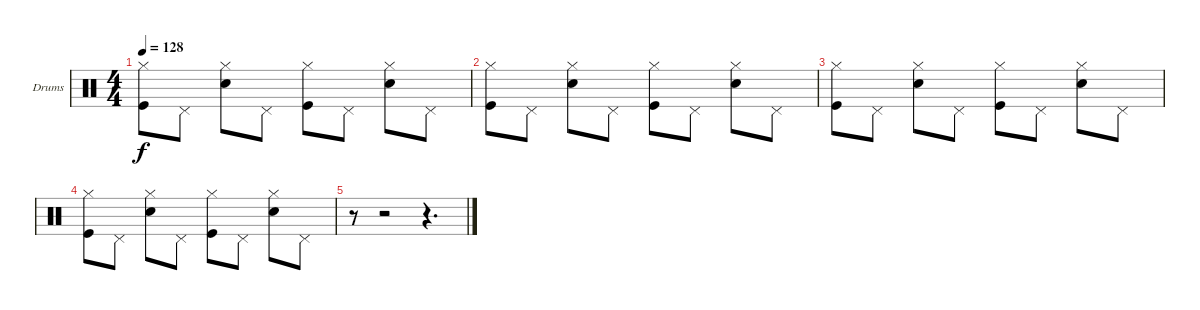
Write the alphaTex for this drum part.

\bracketExtendMode groupsimilarinstruments
\firstSystemTrackNameOrientation horizontal
\otherSystemsTrackNameOrientation horizontal
\track ("Drumkit" "Drums") {instrument percussion}
\staff {score}
\articulation defaults
\ts (4 4)
\tempo 128
\clef neutral
\ks c
("Hi-Hat (closed)" "Kick (hit)").8{dy f} "Pedal Hi-Hat (hit)".8 ("Hi-Hat (closed)" "Snare (hit) 2").8 "Pedal Hi-Hat (hit)".8 ("Hi-Hat (closed)" "Kick (hit)").8 "Pedal Hi-Hat (hit)".8 ("Hi-Hat (closed)" "Snare (hit) 2").8 "Pedal Hi-Hat (hit)".8 |
("Hi-Hat (closed)" "Kick (hit)").8 "Pedal Hi-Hat (hit)".8 ("Hi-Hat (closed)" "Snare (hit) 2").8 "Pedal Hi-Hat (hit)".8 ("Hi-Hat (closed)" "Kick (hit)").8 "Pedal Hi-Hat (hit)".8 ("Hi-Hat (closed)" "Snare (hit) 2").8 "Pedal Hi-Hat (hit)".8 |
("Hi-Hat (closed)" "Kick (hit)").8 "Pedal Hi-Hat (hit)".8 ("Hi-Hat (closed)" "Snare (hit) 2").8 "Pedal Hi-Hat (hit)".8 ("Hi-Hat (closed)" "Kick (hit)").8 "Pedal Hi-Hat (hit)".8 ("Hi-Hat (closed)" "Snare (hit) 2").8 "Pedal Hi-Hat (hit)".8 |
("Hi-Hat (closed)" "Kick (hit)").8 "Pedal Hi-Hat (hit)".8 ("Hi-Hat (closed)" "Snare (hit) 2").8 "Pedal Hi-Hat (hit)".8 ("Hi-Hat (closed)" "Kick (hit)").8 "Pedal Hi-Hat (hit)".8 ("Hi-Hat (closed)" "Snare (hit) 2").8 "Pedal Hi-Hat (hit)".8 |
r.8 r.2 r.4{d}
